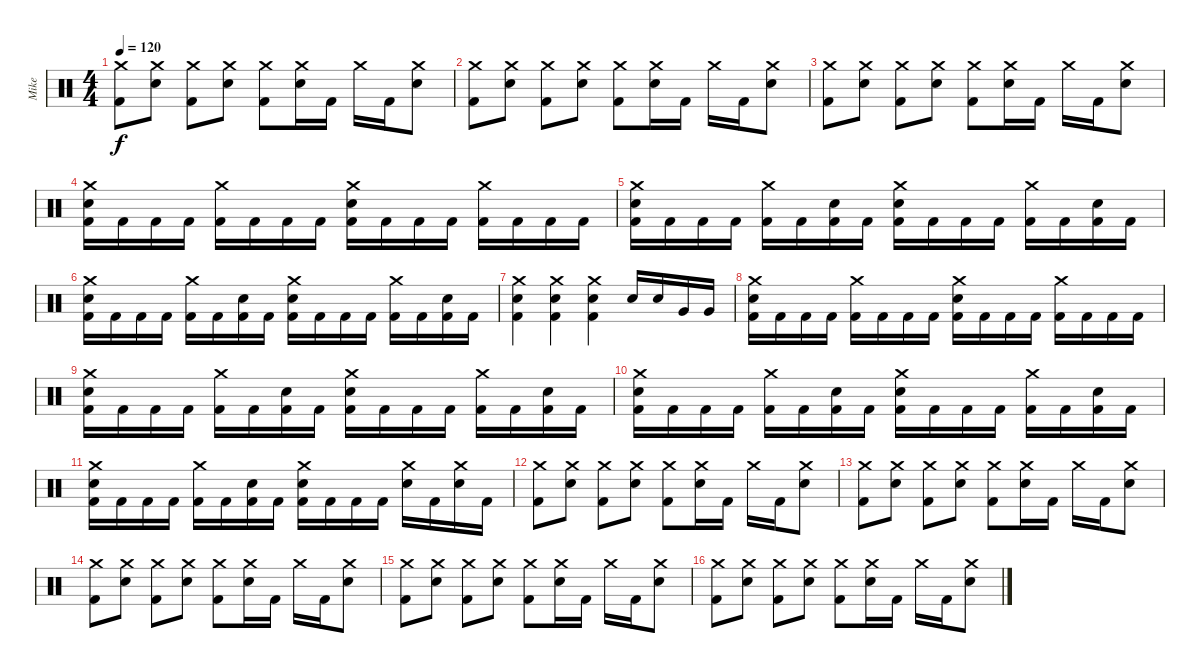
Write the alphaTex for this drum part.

\track ("Mike" "Mike") {instrument percussion}
\staff {score}
\articulation defaults
\ts (4 4)
\tempo 120
\clef neutral
\ks c
("Crash medium (hit)" "Kick (hit) 2").8{dy f} ("Crash medium (hit)" "Electric Snare (hit)").8 ("Crash medium (hit)" "Kick (hit) 2").8 ("Crash medium (hit)" "Electric Snare (hit)").8 ("Crash medium (hit)" "Kick (hit) 2").8 ("Crash medium (hit)" "Electric Snare (hit)").16 "Kick (hit) 2".16 "Crash medium (hit)".16 "Kick (hit) 2".16 ("Crash medium (hit)" "Electric Snare (hit)").8 |
("Crash medium (hit)" "Kick (hit) 2").8 ("Crash medium (hit)" "Electric Snare (hit)").8 ("Crash medium (hit)" "Kick (hit) 2").8 ("Crash medium (hit)" "Electric Snare (hit)").8 ("Crash medium (hit)" "Kick (hit) 2").8 ("Crash medium (hit)" "Electric Snare (hit)").16 "Kick (hit) 2".16 "Crash medium (hit)".16 "Kick (hit) 2".16 ("Crash medium (hit)" "Electric Snare (hit)").8 |
("Crash medium (hit)" "Kick (hit) 2").8 ("Crash medium (hit)" "Electric Snare (hit)").8 ("Crash medium (hit)" "Kick (hit) 2").8 ("Crash medium (hit)" "Electric Snare (hit)").8 ("Crash medium (hit)" "Kick (hit) 2").8 ("Crash medium (hit)" "Electric Snare (hit)").16 "Kick (hit) 2".16 "Crash medium (hit)".16 "Kick (hit) 2".16 ("Crash medium (hit)" "Electric Snare (hit)").8 |
("Crash medium (hit)" "Electric Snare (hit)" "Kick (hit) 2").16 "Kick (hit) 2".16 "Kick (hit) 2".16 "Kick (hit) 2".16 ("Crash medium (hit)" "Kick (hit) 2").16 "Kick (hit) 2".16 "Kick (hit) 2".16 "Kick (hit) 2".16 ("Crash medium (hit)" "Electric Snare (hit)" "Kick (hit) 2").16 "Kick (hit) 2".16 "Kick (hit) 2".16 "Kick (hit) 2".16 ("Crash medium (hit)" "Kick (hit) 2").16 "Kick (hit) 2".16 "Kick (hit) 2".16 "Kick (hit) 2".16 |
("Crash medium (hit)" "Electric Snare (hit)" "Kick (hit) 2").16 "Kick (hit) 2".16 "Kick (hit) 2".16 "Kick (hit) 2".16 ("Crash medium (hit)" "Kick (hit) 2").16 "Kick (hit) 2".16 ("Electric Snare (hit)" "Kick (hit) 2").16 "Kick (hit) 2".16 ("Crash medium (hit)" "Electric Snare (hit)" "Kick (hit) 2").16 "Kick (hit) 2".16 "Kick (hit) 2".16 "Kick (hit) 2".16 ("Crash medium (hit)" "Kick (hit) 2").16 "Kick (hit) 2".16 ("Electric Snare (hit)" "Kick (hit) 2").16 "Kick (hit) 2".16 |
("Crash medium (hit)" "Electric Snare (hit)" "Kick (hit) 2").16 "Kick (hit) 2".16 "Kick (hit) 2".16 "Kick (hit) 2".16 ("Crash medium (hit)" "Kick (hit) 2").16 "Kick (hit) 2".16 ("Electric Snare (hit)" "Kick (hit) 2").16 "Kick (hit) 2".16 ("Crash medium (hit)" "Electric Snare (hit)" "Kick (hit) 2").16 "Kick (hit) 2".16 "Kick (hit) 2".16 "Kick (hit) 2".16 ("Crash medium (hit)" "Kick (hit) 2").16 "Kick (hit) 2".16 ("Electric Snare (hit)" "Kick (hit) 2").16 "Kick (hit) 2".16 |
("Crash medium (hit)" "Electric Snare (hit)" "Kick (hit) 2").4 ("Crash medium (hit)" "Electric Snare (hit)" "Kick (hit) 2").4 ("Crash medium (hit)" "Electric Snare (hit)" "Kick (hit) 2").4 "Electric Snare (hit)".16 "Electric Snare (hit)".16 "Very Low Tom (hit)".16 "Very Low Tom (hit)".16 |
("Crash medium (hit)" "Electric Snare (hit)" "Kick (hit) 2").16 "Kick (hit) 2".16 "Kick (hit) 2".16 "Kick (hit) 2".16 ("Crash medium (hit)" "Kick (hit) 2").16 "Kick (hit) 2".16 "Kick (hit) 2".16 "Kick (hit) 2".16 ("Crash medium (hit)" "Electric Snare (hit)" "Kick (hit) 2").16 "Kick (hit) 2".16 "Kick (hit) 2".16 "Kick (hit) 2".16 ("Crash medium (hit)" "Kick (hit) 2").16 "Kick (hit) 2".16 "Kick (hit) 2".16 "Kick (hit) 2".16 |
("Crash medium (hit)" "Electric Snare (hit)" "Kick (hit) 2").16 "Kick (hit) 2".16 "Kick (hit) 2".16 "Kick (hit) 2".16 ("Crash medium (hit)" "Kick (hit) 2").16 "Kick (hit) 2".16 ("Electric Snare (hit)" "Kick (hit) 2").16 "Kick (hit) 2".16 ("Crash medium (hit)" "Electric Snare (hit)" "Kick (hit) 2").16 "Kick (hit) 2".16 "Kick (hit) 2".16 "Kick (hit) 2".16 ("Crash medium (hit)" "Kick (hit) 2").16 "Kick (hit) 2".16 ("Electric Snare (hit)" "Kick (hit) 2").16 "Kick (hit) 2".16 |
("Crash medium (hit)" "Electric Snare (hit)" "Kick (hit) 2").16 "Kick (hit) 2".16 "Kick (hit) 2".16 "Kick (hit) 2".16 ("Crash medium (hit)" "Kick (hit) 2").16 "Kick (hit) 2".16 ("Electric Snare (hit)" "Kick (hit) 2").16 "Kick (hit) 2".16 ("Crash medium (hit)" "Electric Snare (hit)" "Kick (hit) 2").16 "Kick (hit) 2".16 "Kick (hit) 2".16 "Kick (hit) 2".16 ("Crash medium (hit)" "Kick (hit) 2").16 "Kick (hit) 2".16 ("Electric Snare (hit)" "Kick (hit) 2").16 "Kick (hit) 2".16 |
("Crash medium (hit)" "Electric Snare (hit)" "Kick (hit) 2").16 "Kick (hit) 2".16 "Kick (hit) 2".16 "Kick (hit) 2".16 ("Crash medium (hit)" "Kick (hit) 2").16 "Kick (hit) 2".16 ("Electric Snare (hit)" "Kick (hit) 2").16 "Kick (hit) 2".16 ("Crash medium (hit)" "Electric Snare (hit)" "Kick (hit) 2").16 "Kick (hit) 2".16 "Kick (hit) 2".16 "Kick (hit) 2".16 ("Crash medium (hit)" "Electric Snare (hit)").16 "Kick (hit) 2".16 ("Crash medium (hit)" "Electric Snare (hit)").16 "Kick (hit) 2".16 |
("Crash medium (hit)" "Kick (hit) 2").8 ("Crash medium (hit)" "Electric Snare (hit)").8 ("Crash medium (hit)" "Kick (hit) 2").8 ("Crash medium (hit)" "Electric Snare (hit)").8 ("Crash medium (hit)" "Kick (hit) 2").8 ("Crash medium (hit)" "Electric Snare (hit)").16 "Kick (hit) 2".16 "Crash medium (hit)".16 "Kick (hit) 2".16 ("Crash medium (hit)" "Electric Snare (hit)").8 |
("Crash medium (hit)" "Kick (hit) 2").8 ("Crash medium (hit)" "Electric Snare (hit)").8 ("Crash medium (hit)" "Kick (hit) 2").8 ("Crash medium (hit)" "Electric Snare (hit)").8 ("Crash medium (hit)" "Kick (hit) 2").8 ("Crash medium (hit)" "Electric Snare (hit)").16 "Kick (hit) 2".16 "Crash medium (hit)".16 "Kick (hit) 2".16 ("Crash medium (hit)" "Electric Snare (hit)").8 |
("Crash medium (hit)" "Kick (hit) 2").8 ("Crash medium (hit)" "Electric Snare (hit)").8 ("Crash medium (hit)" "Kick (hit) 2").8 ("Crash medium (hit)" "Electric Snare (hit)").8 ("Crash medium (hit)" "Kick (hit) 2").8 ("Crash medium (hit)" "Electric Snare (hit)").16 "Kick (hit) 2".16 "Crash medium (hit)".16 "Kick (hit) 2".16 ("Crash medium (hit)" "Electric Snare (hit)").8 |
("Crash medium (hit)" "Kick (hit) 2").8 ("Crash medium (hit)" "Electric Snare (hit)").8 ("Crash medium (hit)" "Kick (hit) 2").8 ("Crash medium (hit)" "Electric Snare (hit)").8 ("Crash medium (hit)" "Kick (hit) 2").8 ("Crash medium (hit)" "Electric Snare (hit)").16 "Kick (hit) 2".16 "Crash medium (hit)".16 "Kick (hit) 2".16 ("Crash medium (hit)" "Electric Snare (hit)").8 |
("Crash medium (hit)" "Kick (hit) 2").8 ("Crash medium (hit)" "Electric Snare (hit)").8 ("Crash medium (hit)" "Kick (hit) 2").8 ("Crash medium (hit)" "Electric Snare (hit)").8 ("Crash medium (hit)" "Kick (hit) 2").8 ("Crash medium (hit)" "Electric Snare (hit)").16 "Kick (hit) 2".16 "Crash medium (hit)".16 "Kick (hit) 2".16 ("Crash medium (hit)" "Electric Snare (hit)").8
